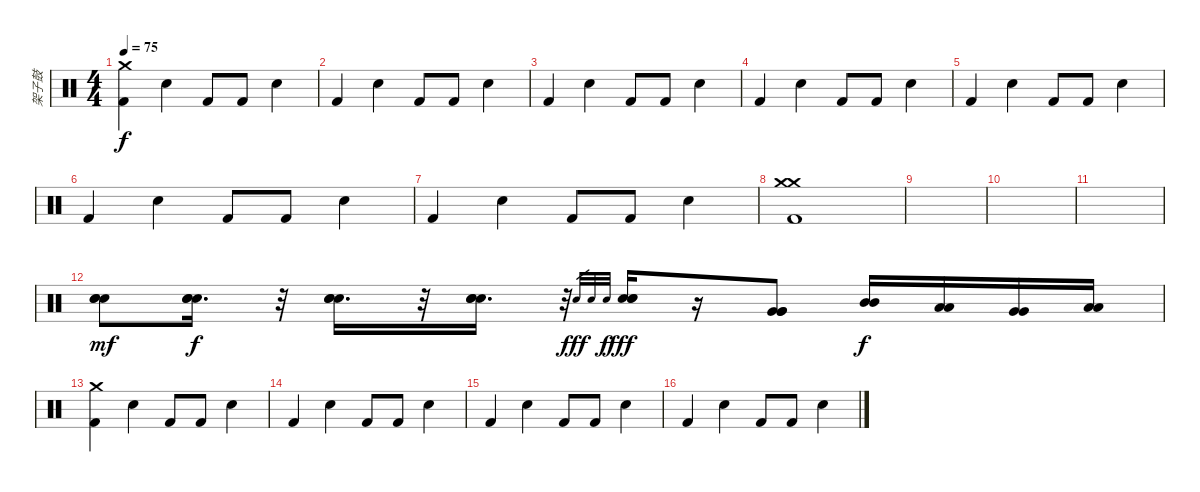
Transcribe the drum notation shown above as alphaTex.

\track ("架子鼓" "架子鼓") {instrument percussion}
\staff {score}
\articulation defaults
\ts (4 4)
\tempo 75
\clef neutral
\ks c
("Kick (hit) 2" "Crash medium (hit)").4{dy f} "Electric Snare (hit)".4 "Kick (hit) 2".8 "Kick (hit) 2".8 "Electric Snare (hit)".4 |
"Kick (hit) 2".4 "Electric Snare (hit)".4 "Kick (hit) 2".8 "Kick (hit) 2".8 "Electric Snare (hit)".4 |
"Kick (hit) 2".4 "Electric Snare (hit)".4 "Kick (hit) 2".8 "Kick (hit) 2".8 "Electric Snare (hit)".4 |
"Kick (hit) 2".4 "Electric Snare (hit)".4 "Kick (hit) 2".8 "Kick (hit) 2".8 "Electric Snare (hit)".4 |
"Kick (hit) 2".4 "Electric Snare (hit)".4 "Kick (hit) 2".8 "Kick (hit) 2".8 "Electric Snare (hit)".4 |
"Kick (hit) 2".4 "Electric Snare (hit)".4 "Kick (hit) 2".8 "Kick (hit) 2".8 "Electric Snare (hit)".4 |
"Kick (hit) 2".4 "Electric Snare (hit)".4 "Kick (hit) 2".8 "Kick (hit) 2".8 "Electric Snare (hit)".4 |
("Kick (hit) 2" "Crash medium (hit)" "Crash medium (hit)").1 |
|
|
|
("Snare (hit) 2" "Snare (hit) 2" "Snare (hit) 2").8{dy mf} ("Snare (hit) 2" "Snare (hit) 2" "Snare (hit) 2").16{d dy f} r.32 ("Snare (hit) 2" "Snare (hit) 2" "Snare (hit) 2").16{d} r.32 ("Snare (hit) 2" "Snare (hit) 2" "Snare (hit) 2").16{d} r.32 "Snare (hit) 2".32{gr dy fff} "Snare (hit) 2".32{gr} "Snare (hit) 2".32{gr dy f} ("Snare (hit) 2" "Snare (hit) 2" "Snare (hit) 2").16{dy fff} r.16 ("Very Low Tom (hit)" "Very Low Tom (hit)" "Very Low Tom (hit)").8 ("Mid Tom (hit)" "Mid Tom (hit)").16{dy f} ("Low Tom (hit)" "Low Tom (hit)").16 ("Very Low Tom (hit)" "Very Low Tom (hit)").16 ("Low Floor Tom (hit)" "Low Floor Tom (hit)").16 |
("Kick (hit) 2" "Crash medium (hit)").4 "Electric Snare (hit)".4 "Kick (hit) 2".8 "Kick (hit) 2".8 "Electric Snare (hit)".4 |
"Kick (hit) 2".4 "Electric Snare (hit)".4 "Kick (hit) 2".8 "Kick (hit) 2".8 "Electric Snare (hit)".4 |
"Kick (hit) 2".4 "Electric Snare (hit)".4 "Kick (hit) 2".8 "Kick (hit) 2".8 "Electric Snare (hit)".4 |
"Kick (hit) 2".4 "Electric Snare (hit)".4 "Kick (hit) 2".8 "Kick (hit) 2".8 "Electric Snare (hit)".4
